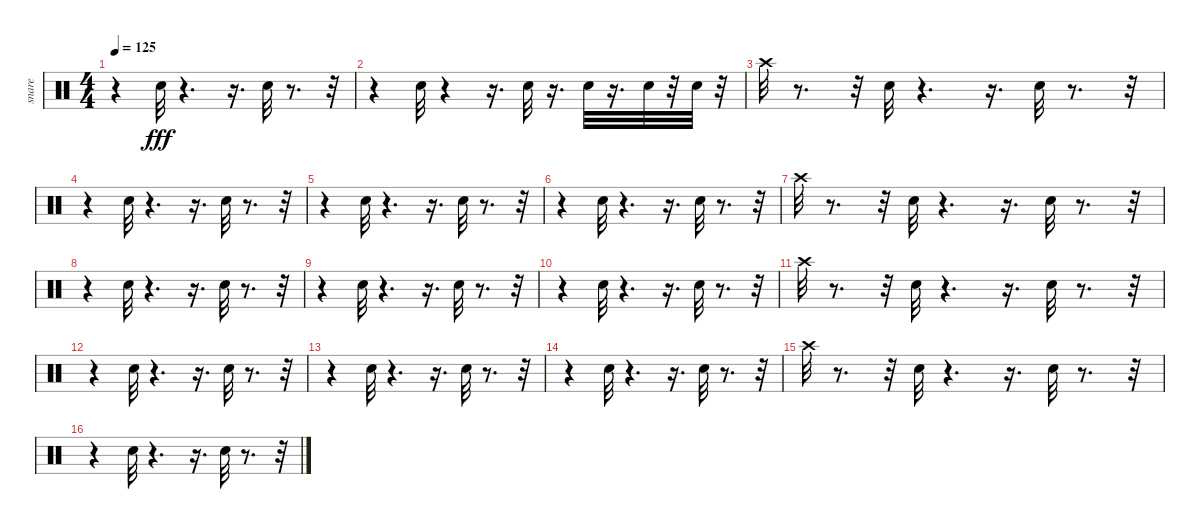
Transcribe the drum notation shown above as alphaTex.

\track ("snare" "snare") {instrument percussion}
\staff {score}
\articulation defaults
\ts (4 4)
\tempo 125
\clef neutral
\ks c
r.4{dy fff} "Electric Snare (hit)".32 r.4{d} r.16{d} "Electric Snare (hit)".32 r.8{d} r.32 |
r.4 "Electric Snare (hit)".32 r.4 r.16{d} "Electric Snare (hit)".32 r.16{d} "Electric Snare (hit)".32 r.16{d} "Electric Snare (hit)".32 r.32 "Electric Snare (hit)".32 r.32 |
"Crash high (hit)".32 r.8{d} r.32 "Electric Snare (hit)".32 r.4{d} r.16{d} "Electric Snare (hit)".32 r.8{d} r.32 |
r.4 "Electric Snare (hit)".32 r.4{d} r.16{d} "Electric Snare (hit)".32 r.8{d} r.32 |
r.4 "Electric Snare (hit)".32 r.4{d} r.16{d} "Electric Snare (hit)".32 r.8{d} r.32 |
r.4 "Electric Snare (hit)".32 r.4{d} r.16{d} "Electric Snare (hit)".32 r.8{d} r.32 |
"Crash high (hit)".32 r.8{d} r.32 "Electric Snare (hit)".32 r.4{d} r.16{d} "Electric Snare (hit)".32 r.8{d} r.32 |
r.4 "Electric Snare (hit)".32 r.4{d} r.16{d} "Electric Snare (hit)".32 r.8{d} r.32 |
r.4 "Electric Snare (hit)".32 r.4{d} r.16{d} "Electric Snare (hit)".32 r.8{d} r.32 |
r.4 "Electric Snare (hit)".32 r.4{d} r.16{d} "Electric Snare (hit)".32 r.8{d} r.32 |
"Crash high (hit)".32 r.8{d} r.32 "Electric Snare (hit)".32 r.4{d} r.16{d} "Electric Snare (hit)".32 r.8{d} r.32 |
r.4 "Electric Snare (hit)".32 r.4{d} r.16{d} "Electric Snare (hit)".32 r.8{d} r.32 |
r.4 "Electric Snare (hit)".32 r.4{d} r.16{d} "Electric Snare (hit)".32 r.8{d} r.32 |
r.4 "Electric Snare (hit)".32 r.4{d} r.16{d} "Electric Snare (hit)".32 r.8{d} r.32 |
"Crash high (hit)".32 r.8{d} r.32 "Electric Snare (hit)".32 r.4{d} r.16{d} "Electric Snare (hit)".32 r.8{d} r.32 |
r.4 "Electric Snare (hit)".32 r.4{d} r.16{d} "Electric Snare (hit)".32 r.8{d} r.32
